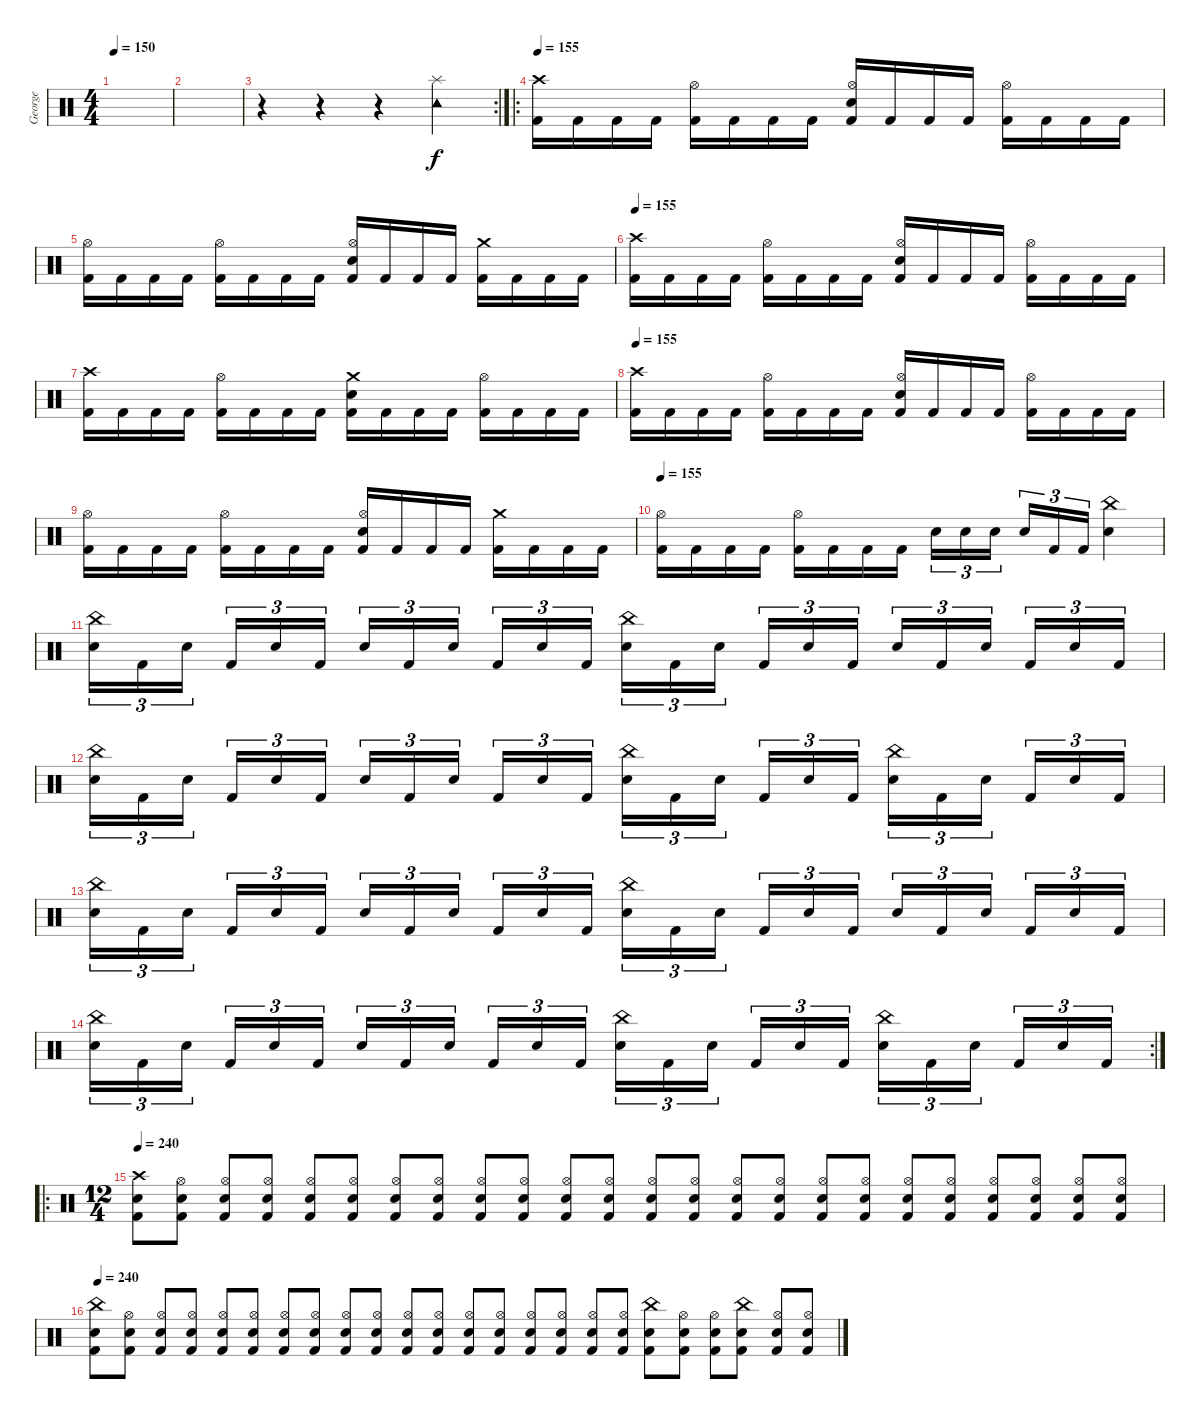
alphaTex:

\track ("George" "George") {instrument percussion}
\staff {score}
\articulation defaults
\ts (4 4)
\tempo 150
\clef neutral
\ks c
|
|
\rc 2
r.4 r.4 r.4 ("Tambourine (hit)" "Splash (hit)").4 |
\ro
\tempo 155
("Crash high (hit)" "Kick (hit) 2").16 "Kick (hit) 2".16 "Kick (hit) 2".16 "Kick (hit) 2".16 ("Hi-Hat (open)" "Kick (hit) 2").16 "Kick (hit) 2".16 "Kick (hit) 2".16 "Kick (hit) 2".16 ("Hi-Hat (open)" "Snare (hit) 2" "Kick (hit) 2").16 "Kick (hit) 2".16 "Kick (hit) 2".16 "Kick (hit) 2".16 ("Hi-Hat (open)" "Kick (hit) 2").16 "Kick (hit) 2".16 "Kick (hit) 2".16 "Kick (hit) 2".16 |
("Hi-Hat (open)" "Kick (hit) 2").16 "Kick (hit) 2".16 "Kick (hit) 2".16 "Kick (hit) 2".16 ("Hi-Hat (open)" "Kick (hit) 2").16 "Kick (hit) 2".16 "Kick (hit) 2".16 "Kick (hit) 2".16 ("Hi-Hat (open)" "Snare (hit) 2" "Kick (hit) 2").16 "Kick (hit) 2".16 "Kick (hit) 2".16 "Kick (hit) 2".16 ("Crash medium (hit)" "Kick (hit) 2").16 "Kick (hit) 2".16 "Kick (hit) 2".16 "Kick (hit) 2".16 |
\tempo 155
("Crash high (hit)" "Kick (hit) 2").16 "Kick (hit) 2".16 "Kick (hit) 2".16 "Kick (hit) 2".16 ("Hi-Hat (open)" "Kick (hit) 2").16 "Kick (hit) 2".16 "Kick (hit) 2".16 "Kick (hit) 2".16 ("Hi-Hat (open)" "Snare (hit) 2" "Kick (hit) 2").16 "Kick (hit) 2".16 "Kick (hit) 2".16 "Kick (hit) 2".16 ("Hi-Hat (open)" "Kick (hit) 2").16 "Kick (hit) 2".16 "Kick (hit) 2".16 "Kick (hit) 2".16 |
("Crash high (hit)" "Kick (hit) 2").16 "Kick (hit) 2".16 "Kick (hit) 2".16 "Kick (hit) 2".16 ("Hi-Hat (open)" "Kick (hit) 2").16 "Kick (hit) 2".16 "Kick (hit) 2".16 "Kick (hit) 2".16 ("Crash medium (hit)" "Snare (hit) 2" "Kick (hit) 2").16 "Kick (hit) 2".16 "Kick (hit) 2".16 "Kick (hit) 2".16 ("Hi-Hat (open)" "Kick (hit) 2").16 "Kick (hit) 2".16 "Kick (hit) 2".16 "Kick (hit) 2".16 |
\tempo 155
("Crash high (hit)" "Kick (hit) 2").16 "Kick (hit) 2".16 "Kick (hit) 2".16 "Kick (hit) 2".16 ("Hi-Hat (open)" "Kick (hit) 2").16 "Kick (hit) 2".16 "Kick (hit) 2".16 "Kick (hit) 2".16 ("Hi-Hat (open)" "Snare (hit) 2" "Kick (hit) 2").16 "Kick (hit) 2".16 "Kick (hit) 2".16 "Kick (hit) 2".16 ("Hi-Hat (open)" "Kick (hit) 2").16 "Kick (hit) 2".16 "Kick (hit) 2".16 "Kick (hit) 2".16 |
("Hi-Hat (open)" "Kick (hit) 2").16 "Kick (hit) 2".16 "Kick (hit) 2".16 "Kick (hit) 2".16 ("Hi-Hat (open)" "Kick (hit) 2").16 "Kick (hit) 2".16 "Kick (hit) 2".16 "Kick (hit) 2".16 ("Hi-Hat (open)" "Snare (hit) 2" "Kick (hit) 2").16 "Kick (hit) 2".16 "Kick (hit) 2".16 "Kick (hit) 2".16 ("Crash medium (hit)" "Kick (hit) 2").16 "Kick (hit) 2".16 "Kick (hit) 2".16 "Kick (hit) 2".16 |
\tempo 155
("Hi-Hat (open)" "Kick (hit) 2").16 "Kick (hit) 2".16 "Kick (hit) 2".16 "Kick (hit) 2".16 ("Hi-Hat (open)" "Kick (hit) 2").16 "Kick (hit) 2".16 "Kick (hit) 2".16 "Kick (hit) 2".16 "Snare (hit) 2".16{tu (3 2)} "Snare (hit) 2".16{tu (3 2)} "Snare (hit) 2".16{tu (3 2) beam splitsecondary} "Snare (hit) 2".16{tu (3 2)} "Kick (hit) 2".16{tu (3 2)} "Kick (hit) 2".16{tu (3 2)} ("China (hit)" "Snare (hit) 2").4 |
("China (hit)" "Snare (hit) 2").16{tu (3 2)} "Kick (hit) 2".16{tu (3 2)} "Snare (hit) 2".16{tu (3 2) beam splitsecondary} "Kick (hit) 2".16{tu (3 2)} "Snare (hit) 2".16{tu (3 2)} "Kick (hit) 2".16{tu (3 2)} "Snare (hit) 2".16{tu (3 2)} "Kick (hit) 2".16{tu (3 2)} "Snare (hit) 2".16{tu (3 2) beam splitsecondary} "Kick (hit) 2".16{tu (3 2)} "Snare (hit) 2".16{tu (3 2)} "Kick (hit) 2".16{tu (3 2)} ("China (hit)" "Snare (hit) 2").16{tu (3 2)} "Kick (hit) 2".16{tu (3 2)} "Snare (hit) 2".16{tu (3 2) beam splitsecondary} "Kick (hit) 2".16{tu (3 2)} "Snare (hit) 2".16{tu (3 2)} "Kick (hit) 2".16{tu (3 2)} "Snare (hit) 2".16{tu (3 2)} "Kick (hit) 2".16{tu (3 2)} "Snare (hit) 2".16{tu (3 2) beam splitsecondary} "Kick (hit) 2".16{tu (3 2)} "Snare (hit) 2".16{tu (3 2)} "Kick (hit) 2".16{tu (3 2)} |
("China (hit)" "Snare (hit) 2").16{tu (3 2)} "Kick (hit) 2".16{tu (3 2)} "Snare (hit) 2".16{tu (3 2) beam splitsecondary} "Kick (hit) 2".16{tu (3 2)} "Snare (hit) 2".16{tu (3 2)} "Kick (hit) 2".16{tu (3 2)} "Snare (hit) 2".16{tu (3 2)} "Kick (hit) 2".16{tu (3 2)} "Snare (hit) 2".16{tu (3 2) beam splitsecondary} "Kick (hit) 2".16{tu (3 2)} "Snare (hit) 2".16{tu (3 2)} "Kick (hit) 2".16{tu (3 2)} ("China (hit)" "Snare (hit) 2").16{tu (3 2)} "Kick (hit) 2".16{tu (3 2)} "Snare (hit) 2".16{tu (3 2) beam splitsecondary} "Kick (hit) 2".16{tu (3 2)} "Snare (hit) 2".16{tu (3 2)} "Kick (hit) 2".16{tu (3 2)} ("China (hit)" "Snare (hit) 2").16{tu (3 2)} "Kick (hit) 2".16{tu (3 2)} "Snare (hit) 2".16{tu (3 2) beam splitsecondary} "Kick (hit) 2".16{tu (3 2)} "Snare (hit) 2".16{tu (3 2)} "Kick (hit) 2".16{tu (3 2)} |
("China (hit)" "Snare (hit) 2").16{tu (3 2)} "Kick (hit) 2".16{tu (3 2)} "Snare (hit) 2".16{tu (3 2) beam splitsecondary} "Kick (hit) 2".16{tu (3 2)} "Snare (hit) 2".16{tu (3 2)} "Kick (hit) 2".16{tu (3 2)} "Snare (hit) 2".16{tu (3 2)} "Kick (hit) 2".16{tu (3 2)} "Snare (hit) 2".16{tu (3 2) beam splitsecondary} "Kick (hit) 2".16{tu (3 2)} "Snare (hit) 2".16{tu (3 2)} "Kick (hit) 2".16{tu (3 2)} ("China (hit)" "Snare (hit) 2").16{tu (3 2)} "Kick (hit) 2".16{tu (3 2)} "Snare (hit) 2".16{tu (3 2) beam splitsecondary} "Kick (hit) 2".16{tu (3 2)} "Snare (hit) 2".16{tu (3 2)} "Kick (hit) 2".16{tu (3 2)} "Snare (hit) 2".16{tu (3 2)} "Kick (hit) 2".16{tu (3 2)} "Snare (hit) 2".16{tu (3 2) beam splitsecondary} "Kick (hit) 2".16{tu (3 2)} "Snare (hit) 2".16{tu (3 2)} "Kick (hit) 2".16{tu (3 2)} |
\rc 2
("China (hit)" "Snare (hit) 2").16{tu (3 2)} "Kick (hit) 2".16{tu (3 2)} "Snare (hit) 2".16{tu (3 2) beam splitsecondary} "Kick (hit) 2".16{tu (3 2)} "Snare (hit) 2".16{tu (3 2)} "Kick (hit) 2".16{tu (3 2)} "Snare (hit) 2".16{tu (3 2)} "Kick (hit) 2".16{tu (3 2)} "Snare (hit) 2".16{tu (3 2) beam splitsecondary} "Kick (hit) 2".16{tu (3 2)} "Snare (hit) 2".16{tu (3 2)} "Kick (hit) 2".16{tu (3 2)} ("China (hit)" "Snare (hit) 2").16{tu (3 2)} "Kick (hit) 2".16{tu (3 2)} "Snare (hit) 2".16{tu (3 2) beam splitsecondary} "Kick (hit) 2".16{tu (3 2)} "Snare (hit) 2".16{tu (3 2)} "Kick (hit) 2".16{tu (3 2)} ("China (hit)" "Snare (hit) 2").16{tu (3 2)} "Kick (hit) 2".16{tu (3 2)} "Snare (hit) 2".16{tu (3 2) beam splitsecondary} "Kick (hit) 2".16{tu (3 2)} "Snare (hit) 2".16{tu (3 2)} "Kick (hit) 2".16{tu (3 2)} |
\ro
\ts (12 4)
\tempo 240
("Crash high (hit)" "Snare (hit) 2" "Kick (hit) 2").8 ("Hi-Hat (open)" "Snare (hit) 2" "Kick (hit) 2").8 ("Hi-Hat (open)" "Snare (hit) 2" "Kick (hit) 2").8 ("Hi-Hat (open)" "Snare (hit) 2" "Kick (hit) 2").8 ("Hi-Hat (open)" "Snare (hit) 2" "Kick (hit) 2").8 ("Hi-Hat (open)" "Snare (hit) 2" "Kick (hit) 2").8 ("Hi-Hat (open)" "Snare (hit) 2" "Kick (hit) 2").8 ("Hi-Hat (open)" "Snare (hit) 2" "Kick (hit) 2").8 ("Hi-Hat (open)" "Snare (hit) 2" "Kick (hit) 2").8 ("Hi-Hat (open)" "Snare (hit) 2" "Kick (hit) 2").8 ("Hi-Hat (open)" "Snare (hit) 2" "Kick (hit) 2").8 ("Hi-Hat (open)" "Snare (hit) 2" "Kick (hit) 2").8 ("Hi-Hat (open)" "Snare (hit) 2" "Kick (hit) 2").8 ("Hi-Hat (open)" "Snare (hit) 2" "Kick (hit) 2").8 ("Hi-Hat (open)" "Snare (hit) 2" "Kick (hit) 2").8 ("Hi-Hat (open)" "Snare (hit) 2" "Kick (hit) 2").8 ("Hi-Hat (open)" "Snare (hit) 2" "Kick (hit) 2").8 ("Hi-Hat (open)" "Snare (hit) 2" "Kick (hit) 2").8 ("Hi-Hat (open)" "Snare (hit) 2" "Kick (hit) 2").8 ("Hi-Hat (open)" "Snare (hit) 2" "Kick (hit) 2").8 ("Hi-Hat (open)" "Snare (hit) 2" "Kick (hit) 2").8 ("Hi-Hat (open)" "Snare (hit) 2" "Kick (hit) 2").8 ("Hi-Hat (open)" "Snare (hit) 2" "Kick (hit) 2").8 ("Hi-Hat (open)" "Snare (hit) 2" "Kick (hit) 2").8 |
\tempo 240
("China (hit)" "Snare (hit) 2" "Kick (hit) 2").8 ("Hi-Hat (open)" "Snare (hit) 2" "Kick (hit) 2").8 ("Hi-Hat (open)" "Snare (hit) 2" "Kick (hit) 2").8 ("Hi-Hat (open)" "Snare (hit) 2" "Kick (hit) 2").8 ("Hi-Hat (open)" "Snare (hit) 2" "Kick (hit) 2").8 ("Hi-Hat (open)" "Snare (hit) 2" "Kick (hit) 2").8 ("Hi-Hat (open)" "Snare (hit) 2" "Kick (hit) 2").8 ("Hi-Hat (open)" "Snare (hit) 2" "Kick (hit) 2").8 ("Hi-Hat (open)" "Snare (hit) 2" "Kick (hit) 2").8 ("Hi-Hat (open)" "Snare (hit) 2" "Kick (hit) 2").8 ("Hi-Hat (open)" "Snare (hit) 2" "Kick (hit) 2").8 ("Hi-Hat (open)" "Snare (hit) 2" "Kick (hit) 2").8 ("Hi-Hat (open)" "Snare (hit) 2" "Kick (hit) 2").8 ("Hi-Hat (open)" "Snare (hit) 2" "Kick (hit) 2").8 ("Hi-Hat (open)" "Snare (hit) 2" "Kick (hit) 2").8 ("Hi-Hat (open)" "Snare (hit) 2" "Kick (hit) 2").8 ("Hi-Hat (open)" "Snare (hit) 2" "Kick (hit) 2").8 ("Hi-Hat (open)" "Snare (hit) 2" "Kick (hit) 2").8 ("China (hit)" "Snare (hit) 2" "Kick (hit) 2").8 ("Hi-Hat (open)" "Snare (hit) 2" "Kick (hit) 2").8 ("Hi-Hat (open)" "Snare (hit) 2" "Kick (hit) 2").8 ("China (hit)" "Snare (hit) 2" "Kick (hit) 2").8 ("Hi-Hat (open)" "Snare (hit) 2" "Kick (hit) 2").8 ("Hi-Hat (open)" "Snare (hit) 2" "Kick (hit) 2").8
